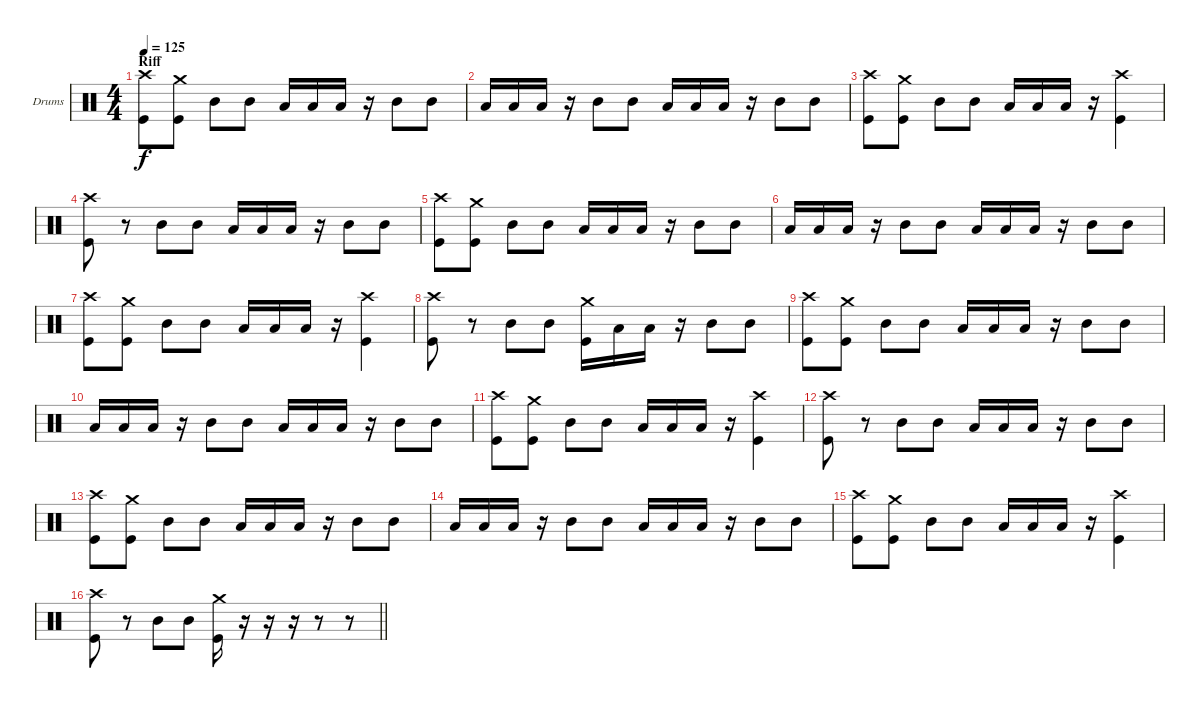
\bracketExtendMode groupsimilarinstruments
\firstSystemTrackNameOrientation horizontal
\otherSystemsTrackNameOrientation horizontal
\track ("Drumkit" "Drums") {instrument percussion}
\staff {score}
\articulation defaults
\ts (4 4)
\section ("" "Riff")
\tempo 125
\clef neutral
\ks c
("Crash high (hit)" "Kick (hit)").8{dy f} ("Crash medium (hit)" "Kick (hit)").8 "Mid Tom (hit)".8 "Mid Tom (hit)".8 "Low Tom (hit)".16 "Low Tom (hit)".16 "Low Tom (hit)".16 r.16 "Mid Tom (hit)".8 "Mid Tom (hit)".8 |
"Low Tom (hit)".16 "Low Tom (hit)".16 "Low Tom (hit)".16 r.16 "Mid Tom (hit)".8 "Mid Tom (hit)".8 "Low Tom (hit)".16 "Low Tom (hit)".16 "Low Tom (hit)".16 r.16 "Mid Tom (hit)".8 "Mid Tom (hit)".8 |
("Crash high (hit)" "Kick (hit)").8 ("Crash medium (hit)" "Kick (hit)").8 "Mid Tom (hit)".8 "Mid Tom (hit)".8 "Low Tom (hit)".16 "Low Tom (hit)".16 "Low Tom (hit)".16 r.16 ("Crash high (hit)" "Kick (hit)").4 |
("Crash high (hit)" "Kick (hit)").8 r.8 "Mid Tom (hit)".8 "Mid Tom (hit)".8 "Low Tom (hit)".16 "Low Tom (hit)".16 "Low Tom (hit)".16 r.16 "Mid Tom (hit)".8 "Mid Tom (hit)".8 |
("Crash high (hit)" "Kick (hit)").8 ("Crash medium (hit)" "Kick (hit)").8 "Mid Tom (hit)".8 "Mid Tom (hit)".8 "Low Tom (hit)".16 "Low Tom (hit)".16 "Low Tom (hit)".16 r.16 "Mid Tom (hit)".8 "Mid Tom (hit)".8 |
"Low Tom (hit)".16 "Low Tom (hit)".16 "Low Tom (hit)".16 r.16 "Mid Tom (hit)".8 "Mid Tom (hit)".8 "Low Tom (hit)".16 "Low Tom (hit)".16 "Low Tom (hit)".16 r.16 "Mid Tom (hit)".8 "Mid Tom (hit)".8 |
("Crash high (hit)" "Kick (hit)").8 ("Crash medium (hit)" "Kick (hit)").8 "Mid Tom (hit)".8 "Mid Tom (hit)".8 "Low Tom (hit)".16 "Low Tom (hit)".16 "Low Tom (hit)".16 r.16 ("Crash high (hit)" "Kick (hit)").4 |
("Crash high (hit)" "Kick (hit)").8 r.8 "Mid Tom (hit)".8 "Mid Tom (hit)".8 ("Crash medium (hit)" "Kick (hit)").16 "Low Tom (hit)".16 "Low Tom (hit)".16 r.16 "Mid Tom (hit)".8 "Mid Tom (hit)".8 |
("Crash high (hit)" "Kick (hit)").8 ("Crash medium (hit)" "Kick (hit)").8 "Mid Tom (hit)".8 "Mid Tom (hit)".8 "Low Tom (hit)".16 "Low Tom (hit)".16 "Low Tom (hit)".16 r.16 "Mid Tom (hit)".8 "Mid Tom (hit)".8 |
"Low Tom (hit)".16 "Low Tom (hit)".16 "Low Tom (hit)".16 r.16 "Mid Tom (hit)".8 "Mid Tom (hit)".8 "Low Tom (hit)".16 "Low Tom (hit)".16 "Low Tom (hit)".16 r.16 "Mid Tom (hit)".8 "Mid Tom (hit)".8 |
("Crash high (hit)" "Kick (hit)").8 ("Crash medium (hit)" "Kick (hit)").8 "Mid Tom (hit)".8 "Mid Tom (hit)".8 "Low Tom (hit)".16 "Low Tom (hit)".16 "Low Tom (hit)".16 r.16 ("Crash high (hit)" "Kick (hit)").4 |
("Crash high (hit)" "Kick (hit)").8 r.8 "Mid Tom (hit)".8 "Mid Tom (hit)".8 "Low Tom (hit)".16 "Low Tom (hit)".16 "Low Tom (hit)".16 r.16 "Mid Tom (hit)".8 "Mid Tom (hit)".8 |
("Crash high (hit)" "Kick (hit)").8 ("Crash medium (hit)" "Kick (hit)").8 "Mid Tom (hit)".8 "Mid Tom (hit)".8 "Low Tom (hit)".16 "Low Tom (hit)".16 "Low Tom (hit)".16 r.16 "Mid Tom (hit)".8 "Mid Tom (hit)".8 |
"Low Tom (hit)".16 "Low Tom (hit)".16 "Low Tom (hit)".16 r.16 "Mid Tom (hit)".8 "Mid Tom (hit)".8 "Low Tom (hit)".16 "Low Tom (hit)".16 "Low Tom (hit)".16 r.16 "Mid Tom (hit)".8 "Mid Tom (hit)".8 |
("Crash high (hit)" "Kick (hit)").8 ("Crash medium (hit)" "Kick (hit)").8 "Mid Tom (hit)".8 "Mid Tom (hit)".8 "Low Tom (hit)".16 "Low Tom (hit)".16 "Low Tom (hit)".16 r.16 ("Crash high (hit)" "Kick (hit)").4 |
\barLineRight lightlight
("Crash high (hit)" "Kick (hit)").8 r.8 "Mid Tom (hit)".8 "Mid Tom (hit)".8 ("Crash medium (hit)" "Kick (hit)").16 r.16 r.16 r.16 r.8 r.8
